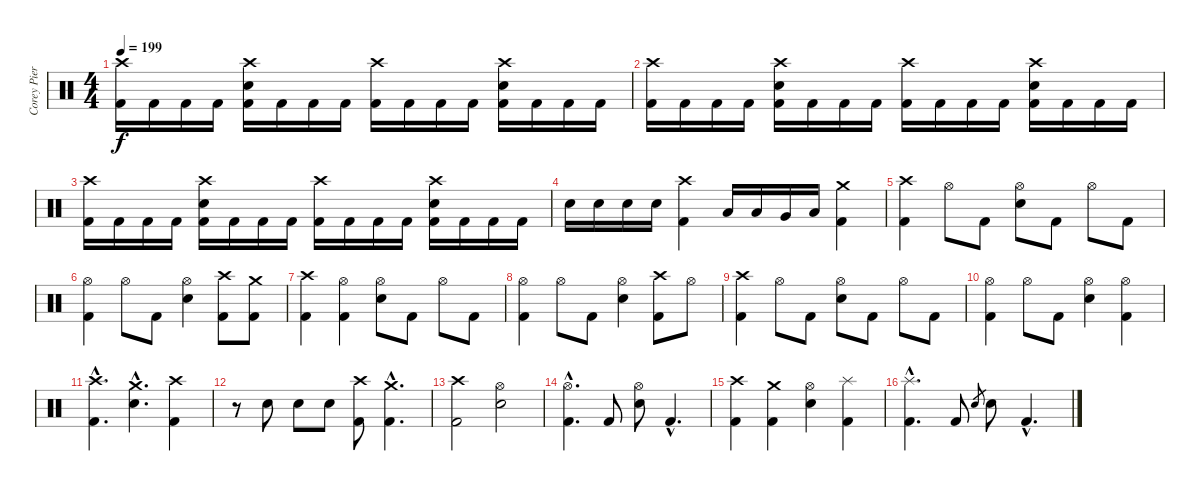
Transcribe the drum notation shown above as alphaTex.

\track ("Corey Pierce (Drums)" "Corey Pier") {instrument percussion}
\staff {score}
\articulation defaults
\ts (4 4)
\tempo 199
\clef neutral
\ks c
("Crash high (hit)" "Kick (hit) 2").16{dy f} "Kick (hit) 2".16 "Kick (hit) 2".16 "Kick (hit) 2".16 ("Snare (hit) 2" "Crash high (hit)" "Kick (hit) 2").16 "Kick (hit) 2".16 "Kick (hit) 2".16 "Kick (hit) 2".16 ("Crash high (hit)" "Kick (hit) 2").16 "Kick (hit) 2".16 "Kick (hit) 2".16 "Kick (hit) 2".16 ("Snare (hit) 2" "Crash high (hit)" "Kick (hit) 2").16 "Kick (hit) 2".16 "Kick (hit) 2".16 "Kick (hit) 2".16 |
("Crash high (hit)" "Kick (hit) 2").16 "Kick (hit) 2".16 "Kick (hit) 2".16 "Kick (hit) 2".16 ("Snare (hit) 2" "Crash high (hit)" "Kick (hit) 2").16 "Kick (hit) 2".16 "Kick (hit) 2".16 "Kick (hit) 2".16 ("Crash high (hit)" "Kick (hit) 2").16 "Kick (hit) 2".16 "Kick (hit) 2".16 "Kick (hit) 2".16 ("Snare (hit) 2" "Crash high (hit)" "Kick (hit) 2").16 "Kick (hit) 2".16 "Kick (hit) 2".16 "Kick (hit) 2".16 |
("Crash high (hit)" "Kick (hit) 2").16 "Kick (hit) 2".16 "Kick (hit) 2".16 "Kick (hit) 2".16 ("Snare (hit) 2" "Crash high (hit)" "Kick (hit) 2").16 "Kick (hit) 2".16 "Kick (hit) 2".16 "Kick (hit) 2".16 ("Crash high (hit)" "Kick (hit) 2").16 "Kick (hit) 2".16 "Kick (hit) 2".16 "Kick (hit) 2".16 ("Snare (hit) 2" "Crash high (hit)" "Kick (hit) 2").16 "Kick (hit) 2".16 "Kick (hit) 2".16 "Kick (hit) 2".16 |
"Snare (hit) 2".16 "Snare (hit) 2".16 "Snare (hit) 2".16 "Snare (hit) 2".16 ("Crash high (hit)" "Kick (hit) 2").4 "Low Tom (hit)".16 "Low Tom (hit)".16 "Very Low Tom (hit)".16 "Low Floor Tom (hit)".16 ("Crash medium (hit)" "Kick (hit) 2").4 |
("Crash high (hit)" "Kick (hit) 2").4 "Hi-Hat (open)".8 "Kick (hit) 2".8 ("Hi-Hat (open)" "Snare (hit) 2").8 "Kick (hit) 2".8 "Hi-Hat (open)".8 "Kick (hit) 2".8 |
("Hi-Hat (open)" "Kick (hit) 2").4 "Hi-Hat (open)".8 "Kick (hit) 2".8 ("Hi-Hat (open)" "Snare (hit) 2").4 ("Crash high (hit)" "Kick (hit) 2").8 ("Crash medium (hit)" "Kick (hit) 2").8 |
("Crash high (hit)" "Kick (hit) 2").4 ("Hi-Hat (open)" "Kick (hit) 2").4 ("Hi-Hat (open)" "Snare (hit) 2").8 "Kick (hit) 2".8 "Hi-Hat (open)".8 "Kick (hit) 2".8 |
("Hi-Hat (open)" "Kick (hit) 2").4 "Hi-Hat (open)".8 "Kick (hit) 2".8 ("Hi-Hat (open)" "Snare (hit) 2").4 ("Crash high (hit)" "Kick (hit) 2").8 "Hi-Hat (open)".8 |
("Crash high (hit)" "Kick (hit) 2").4 "Hi-Hat (open)".8 "Kick (hit) 2".8 ("Hi-Hat (open)" "Snare (hit) 2").8 "Kick (hit) 2".8 "Hi-Hat (open)".8 "Kick (hit) 2".8 |
("Hi-Hat (open)" "Kick (hit) 2").4 "Hi-Hat (open)".8 "Kick (hit) 2".8 ("Hi-Hat (open)" "Snare (hit) 2").4 ("Hi-Hat (open)" "Kick (hit) 2").4 |
("Crash high (hit)"{hac} "Kick (hit) 2"{hac}).4{d} ("Crash medium (hit)"{hac} "Snare (hit) 2"{hac}).4{d} ("Crash high (hit)" "Kick (hit) 2").4 |
r.8 "Snare (hit) 2".8 "Snare (hit) 2".8 "Snare (hit) 2".8 ("Crash high (hit)" "Kick (hit) 2").8 ("Crash medium (hit)"{hac} "Kick (hit) 2"{hac}).4{d} |
("Crash high (hit)" "Kick (hit) 2").2 ("Hi-Hat (open)" "Snare (hit) 2").2 |
("Hi-Hat (open)"{hac} "Kick (hit) 2"{hac}).4{d} "Kick (hit) 2".8 ("Hi-Hat (open)" "Snare (hit) 2").8 "Kick (hit) 2"{hac}.4{d} |
("Crash high (hit)" "Kick (hit) 2").4 ("Crash medium (hit)" "Kick (hit) 2").4 ("Hi-Hat (open)" "Snare (hit) 2").4 ("Splash (hit)" "Kick (hit) 2").4 |
("Splash (hit)"{hac} "Kick (hit) 2"{hac}).4{d} "Kick (hit) 2".8 "Snare (hit) 2".8{gr} "Snare (hit) 2".8 "Kick (hit) 2"{hac}.4{d}
